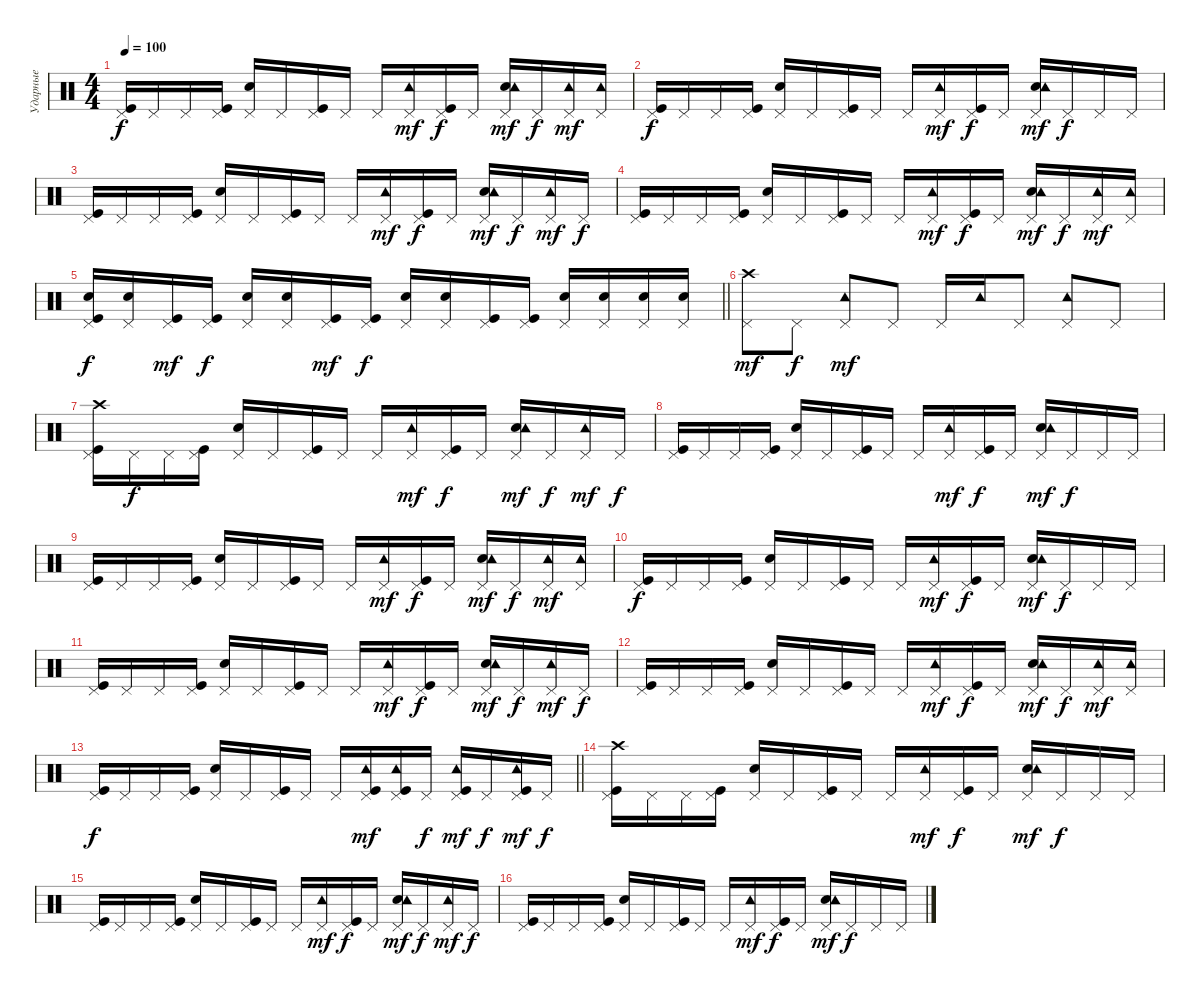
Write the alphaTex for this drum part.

\track ("Ударные" "Ударные") {instrument percussion}
\staff {score}
\articulation defaults
\ts (4 4)
\tempo 100
\clef neutral
\ks c
("Kick (hit)" "Pedal Hi-Hat (hit)").16{dy f} "Pedal Hi-Hat (hit)".16 "Pedal Hi-Hat (hit)".16 ("Kick (hit)" "Pedal Hi-Hat (hit)").16 ("Pedal Hi-Hat (hit)" "Electric Snare (hit)").16 "Pedal Hi-Hat (hit)".16 ("Kick (hit)" "Pedal Hi-Hat (hit)").16 "Pedal Hi-Hat (hit)".16 "Pedal Hi-Hat (hit)".16 ("Pedal Hi-Hat (hit)" "Tambourine (hit)").16{dy mf} ("Kick (hit)" "Pedal Hi-Hat (hit)").16{dy f} "Pedal Hi-Hat (hit)".16 ("Pedal Hi-Hat (hit)" "Electric Snare (hit)" "Tambourine (hit)").16{dy mf} "Pedal Hi-Hat (hit)".16{dy f} ("Pedal Hi-Hat (hit)" "Tambourine (hit)").16{dy mf} ("Pedal Hi-Hat (hit)" "Tambourine (hit)").16 |
("Kick (hit)" "Pedal Hi-Hat (hit)").16{dy f} "Pedal Hi-Hat (hit)".16 "Pedal Hi-Hat (hit)".16 ("Kick (hit)" "Pedal Hi-Hat (hit)").16 ("Pedal Hi-Hat (hit)" "Electric Snare (hit)").16 "Pedal Hi-Hat (hit)".16 ("Kick (hit)" "Pedal Hi-Hat (hit)").16 "Pedal Hi-Hat (hit)".16 "Pedal Hi-Hat (hit)".16 ("Pedal Hi-Hat (hit)" "Tambourine (hit)").16{dy mf} ("Kick (hit)" "Pedal Hi-Hat (hit)").16{dy f} "Pedal Hi-Hat (hit)".16 ("Pedal Hi-Hat (hit)" "Electric Snare (hit)" "Tambourine (hit)").16{dy mf} "Pedal Hi-Hat (hit)".16{dy f} "Pedal Hi-Hat (hit)".16 "Pedal Hi-Hat (hit)".16 |
("Kick (hit)" "Pedal Hi-Hat (hit)").16 "Pedal Hi-Hat (hit)".16 "Pedal Hi-Hat (hit)".16 ("Kick (hit)" "Pedal Hi-Hat (hit)").16 ("Pedal Hi-Hat (hit)" "Electric Snare (hit)").16 "Pedal Hi-Hat (hit)".16 ("Kick (hit)" "Pedal Hi-Hat (hit)").16 "Pedal Hi-Hat (hit)".16 "Pedal Hi-Hat (hit)".16 ("Pedal Hi-Hat (hit)" "Tambourine (hit)").16{dy mf} ("Kick (hit)" "Pedal Hi-Hat (hit)").16{dy f} "Pedal Hi-Hat (hit)".16 ("Pedal Hi-Hat (hit)" "Electric Snare (hit)" "Tambourine (hit)").16{dy mf} "Pedal Hi-Hat (hit)".16{dy f} ("Pedal Hi-Hat (hit)" "Tambourine (hit)").16{dy mf} "Pedal Hi-Hat (hit)".16{dy f} |
("Kick (hit)" "Pedal Hi-Hat (hit)").16 "Pedal Hi-Hat (hit)".16 "Pedal Hi-Hat (hit)".16 ("Kick (hit)" "Pedal Hi-Hat (hit)").16 ("Pedal Hi-Hat (hit)" "Electric Snare (hit)").16 "Pedal Hi-Hat (hit)".16 ("Kick (hit)" "Pedal Hi-Hat (hit)").16 "Pedal Hi-Hat (hit)".16 "Pedal Hi-Hat (hit)".16 ("Pedal Hi-Hat (hit)" "Tambourine (hit)").16{dy mf} ("Kick (hit)" "Pedal Hi-Hat (hit)").16{dy f} "Pedal Hi-Hat (hit)".16 ("Pedal Hi-Hat (hit)" "Electric Snare (hit)" "Tambourine (hit)").16{dy mf} "Pedal Hi-Hat (hit)".16{dy f} ("Pedal Hi-Hat (hit)" "Tambourine (hit)").16{dy mf} ("Pedal Hi-Hat (hit)" "Tambourine (hit)").16 |
\barLineRight lightlight
("Kick (hit)" "Pedal Hi-Hat (hit)" "Electric Snare (hit)").16{dy f} ("Pedal Hi-Hat (hit)" "Electric Snare (hit)").16 ("Kick (hit)" "Pedal Hi-Hat (hit)").16{dy mf} ("Kick (hit)" "Pedal Hi-Hat (hit)").16{dy f} ("Pedal Hi-Hat (hit)" "Electric Snare (hit)").16 ("Electric Snare (hit)" "Pedal Hi-Hat (hit)").16 ("Kick (hit)" "Pedal Hi-Hat (hit)").16{dy mf} ("Kick (hit)" "Pedal Hi-Hat (hit)").16{dy f} ("Electric Snare (hit)" "Pedal Hi-Hat (hit)").16 ("Electric Snare (hit)" "Pedal Hi-Hat (hit)").16 ("Pedal Hi-Hat (hit)" "Kick (hit)").16 ("Pedal Hi-Hat (hit)" "Kick (hit)").16 ("Electric Snare (hit)" "Pedal Hi-Hat (hit)").16 ("Electric Snare (hit)" "Pedal Hi-Hat (hit)").16 ("Electric Snare (hit)" "Pedal Hi-Hat (hit)").16 ("Electric Snare (hit)" "Pedal Hi-Hat (hit)").16 |
("Pedal Hi-Hat (hit)" "Crash high (hit)").8{dy mf} "Pedal Hi-Hat (hit)".8{dy f} ("Tambourine (hit)" "Pedal Hi-Hat (hit)").8{dy mf} "Pedal Hi-Hat (hit)".8 "Pedal Hi-Hat (hit)".16 "Tambourine (hit)".16 "Pedal Hi-Hat (hit)".8 ("Tambourine (hit)" "Pedal Hi-Hat (hit)").8 "Pedal Hi-Hat (hit)".8 |
("Kick (hit)" "Pedal Hi-Hat (hit)" "Crash high (hit)").16 "Pedal Hi-Hat (hit)".16{dy f} "Pedal Hi-Hat (hit)".16 ("Kick (hit)" "Pedal Hi-Hat (hit)").16 ("Pedal Hi-Hat (hit)" "Electric Snare (hit)").16 "Pedal Hi-Hat (hit)".16 ("Kick (hit)" "Pedal Hi-Hat (hit)").16 "Pedal Hi-Hat (hit)".16 "Pedal Hi-Hat (hit)".16 ("Pedal Hi-Hat (hit)" "Tambourine (hit)").16{dy mf} ("Kick (hit)" "Pedal Hi-Hat (hit)").16{dy f} "Pedal Hi-Hat (hit)".16 ("Pedal Hi-Hat (hit)" "Electric Snare (hit)" "Tambourine (hit)").16{dy mf} "Pedal Hi-Hat (hit)".16{dy f} ("Pedal Hi-Hat (hit)" "Tambourine (hit)").16{dy mf} "Pedal Hi-Hat (hit)".16{dy f} |
("Kick (hit)" "Pedal Hi-Hat (hit)").16 "Pedal Hi-Hat (hit)".16 "Pedal Hi-Hat (hit)".16 ("Kick (hit)" "Pedal Hi-Hat (hit)").16 ("Pedal Hi-Hat (hit)" "Electric Snare (hit)").16 "Pedal Hi-Hat (hit)".16 ("Kick (hit)" "Pedal Hi-Hat (hit)").16 "Pedal Hi-Hat (hit)".16 "Pedal Hi-Hat (hit)".16 ("Pedal Hi-Hat (hit)" "Tambourine (hit)").16{dy mf} ("Kick (hit)" "Pedal Hi-Hat (hit)").16{dy f} "Pedal Hi-Hat (hit)".16 ("Pedal Hi-Hat (hit)" "Electric Snare (hit)" "Tambourine (hit)").16{dy mf} "Pedal Hi-Hat (hit)".16{dy f} "Pedal Hi-Hat (hit)".16 "Pedal Hi-Hat (hit)".16 |
("Kick (hit)" "Pedal Hi-Hat (hit)").16 "Pedal Hi-Hat (hit)".16 "Pedal Hi-Hat (hit)".16 ("Kick (hit)" "Pedal Hi-Hat (hit)").16 ("Pedal Hi-Hat (hit)" "Electric Snare (hit)").16 "Pedal Hi-Hat (hit)".16 ("Kick (hit)" "Pedal Hi-Hat (hit)").16 "Pedal Hi-Hat (hit)".16 "Pedal Hi-Hat (hit)".16 ("Pedal Hi-Hat (hit)" "Tambourine (hit)").16{dy mf} ("Kick (hit)" "Pedal Hi-Hat (hit)").16{dy f} "Pedal Hi-Hat (hit)".16 ("Pedal Hi-Hat (hit)" "Electric Snare (hit)" "Tambourine (hit)").16{dy mf} "Pedal Hi-Hat (hit)".16{dy f} ("Pedal Hi-Hat (hit)" "Tambourine (hit)").16{dy mf} ("Pedal Hi-Hat (hit)" "Tambourine (hit)").16 |
("Kick (hit)" "Pedal Hi-Hat (hit)").16{dy f} "Pedal Hi-Hat (hit)".16 "Pedal Hi-Hat (hit)".16 ("Kick (hit)" "Pedal Hi-Hat (hit)").16 ("Pedal Hi-Hat (hit)" "Electric Snare (hit)").16 "Pedal Hi-Hat (hit)".16 ("Kick (hit)" "Pedal Hi-Hat (hit)").16 "Pedal Hi-Hat (hit)".16 "Pedal Hi-Hat (hit)".16 ("Pedal Hi-Hat (hit)" "Tambourine (hit)").16{dy mf} ("Kick (hit)" "Pedal Hi-Hat (hit)").16{dy f} "Pedal Hi-Hat (hit)".16 ("Pedal Hi-Hat (hit)" "Electric Snare (hit)" "Tambourine (hit)").16{dy mf} "Pedal Hi-Hat (hit)".16{dy f} "Pedal Hi-Hat (hit)".16 "Pedal Hi-Hat (hit)".16 |
("Kick (hit)" "Pedal Hi-Hat (hit)").16 "Pedal Hi-Hat (hit)".16 "Pedal Hi-Hat (hit)".16 ("Kick (hit)" "Pedal Hi-Hat (hit)").16 ("Pedal Hi-Hat (hit)" "Electric Snare (hit)").16 "Pedal Hi-Hat (hit)".16 ("Kick (hit)" "Pedal Hi-Hat (hit)").16 "Pedal Hi-Hat (hit)".16 "Pedal Hi-Hat (hit)".16 ("Pedal Hi-Hat (hit)" "Tambourine (hit)").16{dy mf} ("Kick (hit)" "Pedal Hi-Hat (hit)").16{dy f} "Pedal Hi-Hat (hit)".16 ("Pedal Hi-Hat (hit)" "Electric Snare (hit)" "Tambourine (hit)").16{dy mf} "Pedal Hi-Hat (hit)".16{dy f} ("Pedal Hi-Hat (hit)" "Tambourine (hit)").16{dy mf} "Pedal Hi-Hat (hit)".16{dy f} |
("Kick (hit)" "Pedal Hi-Hat (hit)").16 "Pedal Hi-Hat (hit)".16 "Pedal Hi-Hat (hit)".16 ("Kick (hit)" "Pedal Hi-Hat (hit)").16 ("Pedal Hi-Hat (hit)" "Electric Snare (hit)").16 "Pedal Hi-Hat (hit)".16 ("Kick (hit)" "Pedal Hi-Hat (hit)").16 "Pedal Hi-Hat (hit)".16 "Pedal Hi-Hat (hit)".16 ("Pedal Hi-Hat (hit)" "Tambourine (hit)").16{dy mf} ("Kick (hit)" "Pedal Hi-Hat (hit)").16{dy f} "Pedal Hi-Hat (hit)".16 ("Pedal Hi-Hat (hit)" "Electric Snare (hit)" "Tambourine (hit)").16{dy mf} "Pedal Hi-Hat (hit)".16{dy f} ("Pedal Hi-Hat (hit)" "Tambourine (hit)").16{dy mf} ("Pedal Hi-Hat (hit)" "Tambourine (hit)").16 |
\barLineRight lightlight
("Kick (hit)" "Pedal Hi-Hat (hit)").16{dy f} "Pedal Hi-Hat (hit)".16 "Pedal Hi-Hat (hit)".16 ("Kick (hit)" "Pedal Hi-Hat (hit)").16 ("Pedal Hi-Hat (hit)" "Electric Snare (hit)").16 "Pedal Hi-Hat (hit)".16 ("Kick (hit)" "Pedal Hi-Hat (hit)").16 "Pedal Hi-Hat (hit)".16 "Pedal Hi-Hat (hit)".16 ("Kick (hit)" "Pedal Hi-Hat (hit)" "Tambourine (hit)").16{dy mf} ("Kick (hit)" "Pedal Hi-Hat (hit)" "Tambourine (hit)").16 "Pedal Hi-Hat (hit)".16{dy f} ("Kick (hit)" "Pedal Hi-Hat (hit)" "Tambourine (hit)").16{dy mf} "Pedal Hi-Hat (hit)".16{dy f} ("Kick (hit)" "Pedal Hi-Hat (hit)" "Tambourine (hit)").16{dy mf} "Pedal Hi-Hat (hit)".16{dy f} |
("Kick (hit)" "Pedal Hi-Hat (hit)" "Crash high (hit)").16 "Pedal Hi-Hat (hit)".16 "Pedal Hi-Hat (hit)".16 ("Kick (hit)" "Pedal Hi-Hat (hit)").16 ("Pedal Hi-Hat (hit)" "Electric Snare (hit)").16 "Pedal Hi-Hat (hit)".16 ("Kick (hit)" "Pedal Hi-Hat (hit)").16 "Pedal Hi-Hat (hit)".16 "Pedal Hi-Hat (hit)".16 ("Pedal Hi-Hat (hit)" "Tambourine (hit)").16{dy mf} ("Kick (hit)" "Pedal Hi-Hat (hit)").16{dy f} "Pedal Hi-Hat (hit)".16 ("Pedal Hi-Hat (hit)" "Electric Snare (hit)" "Tambourine (hit)").16{dy mf} "Pedal Hi-Hat (hit)".16{dy f} "Pedal Hi-Hat (hit)".16 "Pedal Hi-Hat (hit)".16 |
("Kick (hit)" "Pedal Hi-Hat (hit)").16 "Pedal Hi-Hat (hit)".16 "Pedal Hi-Hat (hit)".16 ("Kick (hit)" "Pedal Hi-Hat (hit)").16 ("Pedal Hi-Hat (hit)" "Electric Snare (hit)").16 "Pedal Hi-Hat (hit)".16 ("Kick (hit)" "Pedal Hi-Hat (hit)").16 "Pedal Hi-Hat (hit)".16 "Pedal Hi-Hat (hit)".16 ("Pedal Hi-Hat (hit)" "Tambourine (hit)").16{dy mf} ("Kick (hit)" "Pedal Hi-Hat (hit)").16{dy f} "Pedal Hi-Hat (hit)".16 ("Pedal Hi-Hat (hit)" "Electric Snare (hit)" "Tambourine (hit)").16{dy mf} "Pedal Hi-Hat (hit)".16{dy f} ("Pedal Hi-Hat (hit)" "Tambourine (hit)").16{dy mf} "Pedal Hi-Hat (hit)".16{dy f} |
("Kick (hit)" "Pedal Hi-Hat (hit)").16 "Pedal Hi-Hat (hit)".16 "Pedal Hi-Hat (hit)".16 ("Kick (hit)" "Pedal Hi-Hat (hit)").16 ("Pedal Hi-Hat (hit)" "Electric Snare (hit)").16 "Pedal Hi-Hat (hit)".16 ("Kick (hit)" "Pedal Hi-Hat (hit)").16 "Pedal Hi-Hat (hit)".16 "Pedal Hi-Hat (hit)".16 ("Pedal Hi-Hat (hit)" "Tambourine (hit)").16{dy mf} ("Kick (hit)" "Pedal Hi-Hat (hit)").16{dy f} "Pedal Hi-Hat (hit)".16 ("Pedal Hi-Hat (hit)" "Electric Snare (hit)" "Tambourine (hit)").16{dy mf} "Pedal Hi-Hat (hit)".16{dy f} "Pedal Hi-Hat (hit)".16 "Pedal Hi-Hat (hit)".16
